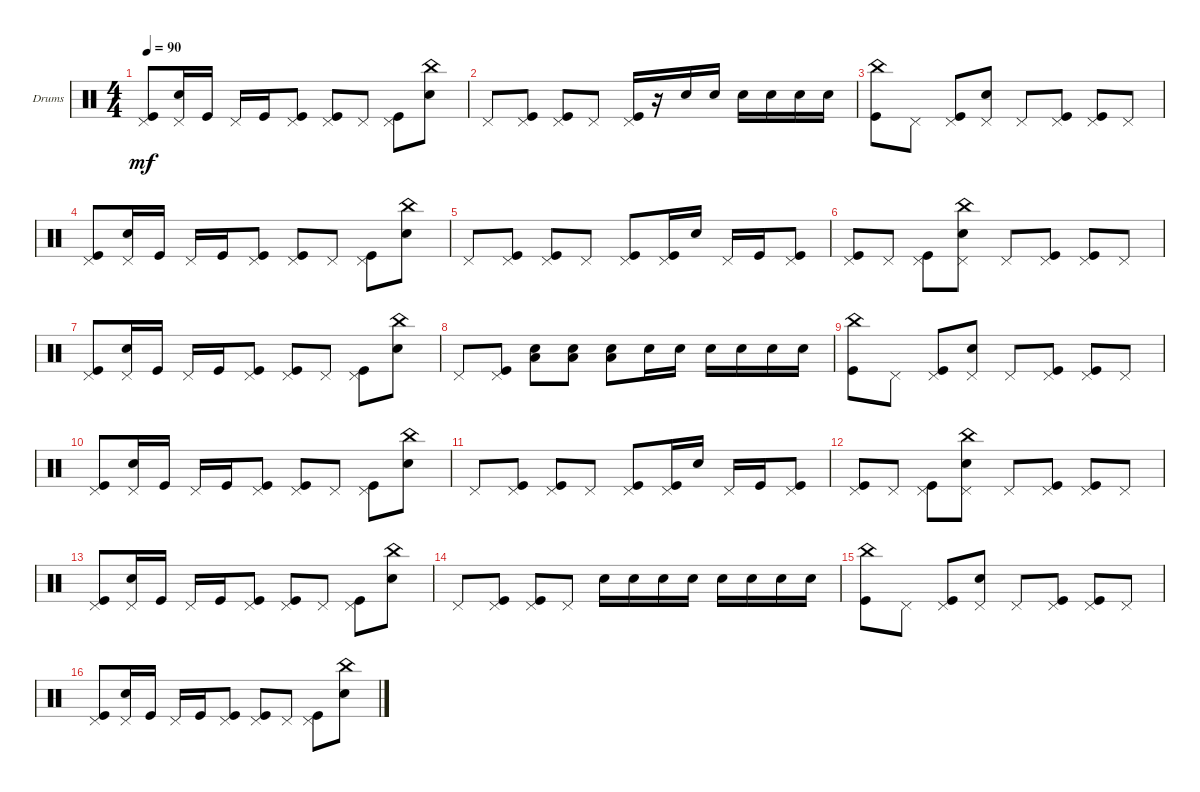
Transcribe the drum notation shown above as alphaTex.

\defaultSystemsLayout 4
\bracketExtendMode groupsimilarinstruments
\firstSystemTrackNameOrientation horizontal
\otherSystemsTrackNameOrientation horizontal
\track ("Drumkit" "Drums") {instrument percussion}
\staff {score}
\articulation defaults
\ts (4 4)
\tempo 90
\clef neutral
\ks c
("Pedal Hi-Hat (hit)" "Kick (hit)").8{dy mf} ("Pedal Hi-Hat (hit)" "Snare (hit) 2").16 "Kick (hit)".16 "Pedal Hi-Hat (hit)".16 "Kick (hit)".16 ("Pedal Hi-Hat (hit)" "Kick (hit)").8 ("Pedal Hi-Hat (hit)" "Kick (hit)").8 "Pedal Hi-Hat (hit)".8 ("Pedal Hi-Hat (hit)" "Kick (hit)").8 ("Snare (hit) 2" "China (hit)").8 |
"Pedal Hi-Hat (hit)".8 ("Pedal Hi-Hat (hit)" "Kick (hit)").8 ("Kick (hit)" "Pedal Hi-Hat (hit)").8 "Pedal Hi-Hat (hit)".8 ("Pedal Hi-Hat (hit)" "Kick (hit)").16 r.16 "Snare (hit) 2".16 "Snare (hit) 2".16 "Snare (hit) 2".16 "Snare (hit) 2".16 "Snare (hit) 2".16 "Snare (hit) 2".16 |
("Kick (hit)" "China (hit)").8 "Pedal Hi-Hat (hit)".8 ("Pedal Hi-Hat (hit)" "Kick (hit)").8 ("Pedal Hi-Hat (hit)" "Snare (hit) 2").8 "Pedal Hi-Hat (hit)".8 ("Pedal Hi-Hat (hit)" "Kick (hit)").8 ("Pedal Hi-Hat (hit)" "Kick (hit)").8 "Pedal Hi-Hat (hit)".8 |
("Pedal Hi-Hat (hit)" "Kick (hit)").8 ("Pedal Hi-Hat (hit)" "Snare (hit) 2").16 "Kick (hit)".16 "Pedal Hi-Hat (hit)".16 "Kick (hit)".16 ("Pedal Hi-Hat (hit)" "Kick (hit)").8 ("Pedal Hi-Hat (hit)" "Kick (hit)").8 "Pedal Hi-Hat (hit)".8 ("Pedal Hi-Hat (hit)" "Kick (hit)").8 ("Snare (hit) 2" "China (hit)").8 |
"Pedal Hi-Hat (hit)".8 ("Pedal Hi-Hat (hit)" "Kick (hit)").8 ("Kick (hit)" "Pedal Hi-Hat (hit)").8 "Pedal Hi-Hat (hit)".8 ("Pedal Hi-Hat (hit)" "Kick (hit)").8 ("Kick (hit)" "Pedal Hi-Hat (hit)").16 "Snare (hit) 2".16 "Pedal Hi-Hat (hit)".16 "Kick (hit)".16 ("Pedal Hi-Hat (hit)" "Kick (hit)").8 |
("Kick (hit)" "Pedal Hi-Hat (hit)").8 "Pedal Hi-Hat (hit)".8 ("Pedal Hi-Hat (hit)" "Kick (hit)").8 ("Pedal Hi-Hat (hit)" "Snare (hit) 2" "China (hit)").8 "Pedal Hi-Hat (hit)".8 ("Pedal Hi-Hat (hit)" "Kick (hit)").8 ("Pedal Hi-Hat (hit)" "Kick (hit)").8 "Pedal Hi-Hat (hit)".8 |
("Pedal Hi-Hat (hit)" "Kick (hit)").8 ("Pedal Hi-Hat (hit)" "Snare (hit) 2").16 "Kick (hit)".16 "Pedal Hi-Hat (hit)".16 "Kick (hit)".16 ("Pedal Hi-Hat (hit)" "Kick (hit)").8 ("Pedal Hi-Hat (hit)" "Kick (hit)").8 "Pedal Hi-Hat (hit)".8 ("Pedal Hi-Hat (hit)" "Kick (hit)").8 ("Snare (hit) 2" "China (hit)").8 |
"Pedal Hi-Hat (hit)".8 ("Pedal Hi-Hat (hit)" "Kick (hit)").8 ("Low Tom (hit)" "Snare (hit) 2").8 ("Snare (hit) 2" "Low Tom (hit)").8 ("Snare (hit) 2" "Low Tom (hit)").8 "Snare (hit) 2".16 "Snare (hit) 2".16 "Snare (hit) 2".16 "Snare (hit) 2".16 "Snare (hit) 2".16 "Snare (hit) 2".16 |
("Kick (hit)" "China (hit)").8 "Pedal Hi-Hat (hit)".8 ("Pedal Hi-Hat (hit)" "Kick (hit)").8 ("Pedal Hi-Hat (hit)" "Snare (hit) 2").8 "Pedal Hi-Hat (hit)".8 ("Pedal Hi-Hat (hit)" "Kick (hit)").8 ("Pedal Hi-Hat (hit)" "Kick (hit)").8 "Pedal Hi-Hat (hit)".8 |
("Pedal Hi-Hat (hit)" "Kick (hit)").8 ("Pedal Hi-Hat (hit)" "Snare (hit) 2").16 "Kick (hit)".16 "Pedal Hi-Hat (hit)".16 "Kick (hit)".16 ("Pedal Hi-Hat (hit)" "Kick (hit)").8 ("Pedal Hi-Hat (hit)" "Kick (hit)").8 "Pedal Hi-Hat (hit)".8 ("Pedal Hi-Hat (hit)" "Kick (hit)").8 ("Snare (hit) 2" "China (hit)").8 |
"Pedal Hi-Hat (hit)".8 ("Pedal Hi-Hat (hit)" "Kick (hit)").8 ("Kick (hit)" "Pedal Hi-Hat (hit)").8 "Pedal Hi-Hat (hit)".8 ("Pedal Hi-Hat (hit)" "Kick (hit)").8 ("Kick (hit)" "Pedal Hi-Hat (hit)").16 "Snare (hit) 2".16 "Pedal Hi-Hat (hit)".16 "Kick (hit)".16 ("Pedal Hi-Hat (hit)" "Kick (hit)").8 |
("Kick (hit)" "Pedal Hi-Hat (hit)").8 "Pedal Hi-Hat (hit)".8 ("Pedal Hi-Hat (hit)" "Kick (hit)").8 ("Pedal Hi-Hat (hit)" "Snare (hit) 2" "China (hit)").8 "Pedal Hi-Hat (hit)".8 ("Pedal Hi-Hat (hit)" "Kick (hit)").8 ("Pedal Hi-Hat (hit)" "Kick (hit)").8 "Pedal Hi-Hat (hit)".8 |
("Pedal Hi-Hat (hit)" "Kick (hit)").8 ("Pedal Hi-Hat (hit)" "Snare (hit) 2").16 "Kick (hit)".16 "Pedal Hi-Hat (hit)".16 "Kick (hit)".16 ("Pedal Hi-Hat (hit)" "Kick (hit)").8 ("Pedal Hi-Hat (hit)" "Kick (hit)").8 "Pedal Hi-Hat (hit)".8 ("Pedal Hi-Hat (hit)" "Kick (hit)").8 ("Snare (hit) 2" "China (hit)").8 |
"Pedal Hi-Hat (hit)".8 ("Pedal Hi-Hat (hit)" "Kick (hit)").8 ("Kick (hit)" "Pedal Hi-Hat (hit)").8 "Pedal Hi-Hat (hit)".8 "Snare (hit) 2".16 "Snare (hit) 2".16 "Snare (hit) 2".16 "Snare (hit) 2".16 "Snare (hit) 2".16 "Snare (hit) 2".16 "Snare (hit) 2".16 "Snare (hit) 2".16 |
("Kick (hit)" "China (hit)").8 "Pedal Hi-Hat (hit)".8 ("Pedal Hi-Hat (hit)" "Kick (hit)").8 ("Pedal Hi-Hat (hit)" "Snare (hit) 2").8 "Pedal Hi-Hat (hit)".8 ("Pedal Hi-Hat (hit)" "Kick (hit)").8 ("Pedal Hi-Hat (hit)" "Kick (hit)").8 "Pedal Hi-Hat (hit)".8 |
("Pedal Hi-Hat (hit)" "Kick (hit)").8 ("Pedal Hi-Hat (hit)" "Snare (hit) 2").16 "Kick (hit)".16 "Pedal Hi-Hat (hit)".16 "Kick (hit)".16 ("Pedal Hi-Hat (hit)" "Kick (hit)").8 ("Pedal Hi-Hat (hit)" "Kick (hit)").8 "Pedal Hi-Hat (hit)".8 ("Pedal Hi-Hat (hit)" "Kick (hit)").8 ("Snare (hit) 2" "China (hit)").8
